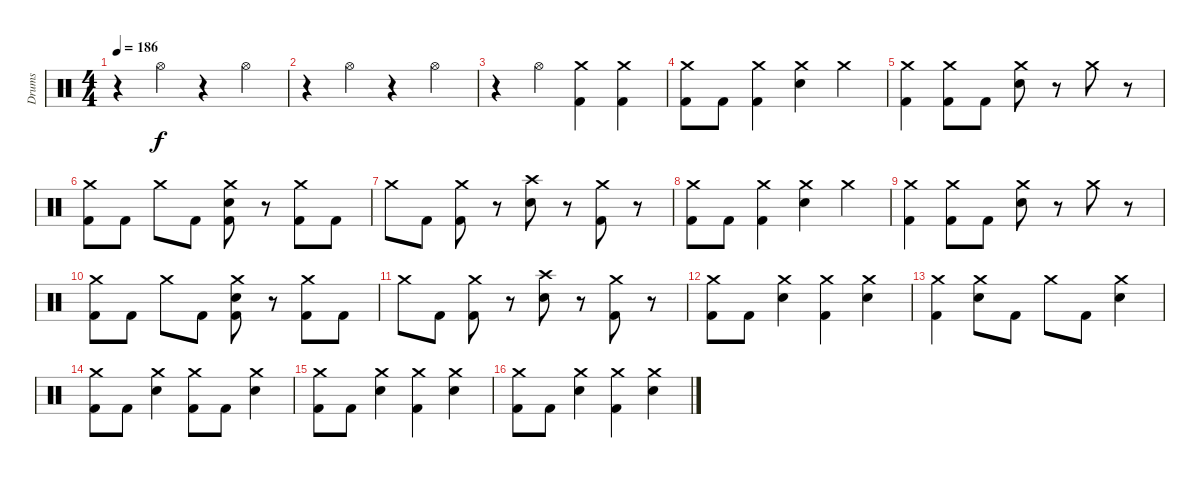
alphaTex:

\track ("Drums" "Drums") {instrument percussion}
\staff {score}
\articulation defaults
\ts (4 4)
\tempo 186
\clef neutral
\ks c
r.4{dy f} "Hi-Hat (open)".4 r.4 "Hi-Hat (open)".4 |
r.4 "Hi-Hat (open)".4 r.4 "Hi-Hat (open)".4 |
r.4 "Hi-Hat (open)".4 ("Crash medium (hit)" "Kick (hit) 2").4 ("Crash medium (hit)" "Kick (hit) 2").4 |
("Crash medium (hit)" "Kick (hit) 2").8 "Kick (hit) 2".8 ("Crash medium (hit)" "Kick (hit) 2").4 ("Crash medium (hit)" "Snare (hit) 2").4 "Crash medium (hit)".4 |
("Crash medium (hit)" "Kick (hit) 2").4 ("Crash medium (hit)" "Kick (hit) 2").8 "Kick (hit) 2".8 ("Crash medium (hit)" "Snare (hit) 2").8 r.8 "Crash medium (hit)".8 r.8 |
("Crash medium (hit)" "Kick (hit) 2").8 "Kick (hit) 2".8 "Crash medium (hit)".8 "Kick (hit) 2".8 ("Crash medium (hit)" "Snare (hit) 2" "Kick (hit) 2").8 r.8 ("Crash medium (hit)" "Kick (hit) 2").8 "Kick (hit) 2".8 |
"Crash medium (hit)".8 "Kick (hit) 2".8 ("Crash medium (hit)" "Kick (hit) 2").8 r.8 ("Crash high (hit)" "Snare (hit) 2").8 r.8 ("Crash medium (hit)" "Kick (hit) 2").8 r.8 |
("Crash medium (hit)" "Kick (hit) 2").8 "Kick (hit) 2".8 ("Crash medium (hit)" "Kick (hit) 2").4 ("Crash medium (hit)" "Snare (hit) 2").4 "Crash medium (hit)".4 |
("Crash medium (hit)" "Kick (hit) 2").4 ("Crash medium (hit)" "Kick (hit) 2").8 "Kick (hit) 2".8 ("Crash medium (hit)" "Snare (hit) 2").8 r.8 "Crash medium (hit)".8 r.8 |
("Crash medium (hit)" "Kick (hit) 2").8 "Kick (hit) 2".8 "Crash medium (hit)".8 "Kick (hit) 2".8 ("Crash medium (hit)" "Snare (hit) 2" "Kick (hit) 2").8 r.8 ("Crash medium (hit)" "Kick (hit) 2").8 "Kick (hit) 2".8 |
"Crash medium (hit)".8 "Kick (hit) 2".8 ("Crash medium (hit)" "Kick (hit) 2").8 r.8 ("Crash high (hit)" "Snare (hit) 2").8 r.8 ("Crash medium (hit)" "Kick (hit) 2").8 r.8 |
("Crash medium (hit)" "Kick (hit) 2").8 "Kick (hit) 2".8 ("Crash medium (hit)" "Snare (hit) 2").4 ("Crash medium (hit)" "Kick (hit) 2").4 ("Crash medium (hit)" "Snare (hit) 2").4 |
("Crash medium (hit)" "Kick (hit) 2").4 ("Crash medium (hit)" "Snare (hit) 2").8 "Kick (hit) 2".8 "Crash medium (hit)".8 "Kick (hit) 2".8 ("Crash medium (hit)" "Snare (hit) 2").4 |
("Crash medium (hit)" "Kick (hit) 2").8 "Kick (hit) 2".8 ("Crash medium (hit)" "Snare (hit) 2").4 ("Crash medium (hit)" "Kick (hit) 2").8 "Kick (hit) 2".8 ("Crash medium (hit)" "Snare (hit) 2").4 |
("Crash medium (hit)" "Kick (hit) 2").8 "Kick (hit) 2".8 ("Crash medium (hit)" "Snare (hit) 2").4 ("Crash medium (hit)" "Kick (hit) 2").4 ("Crash medium (hit)" "Snare (hit) 2").4 |
("Crash medium (hit)" "Kick (hit) 2").8 "Kick (hit) 2".8 ("Crash medium (hit)" "Snare (hit) 2").4 ("Crash medium (hit)" "Kick (hit) 2").4 ("Crash medium (hit)" "Snare (hit) 2").4
